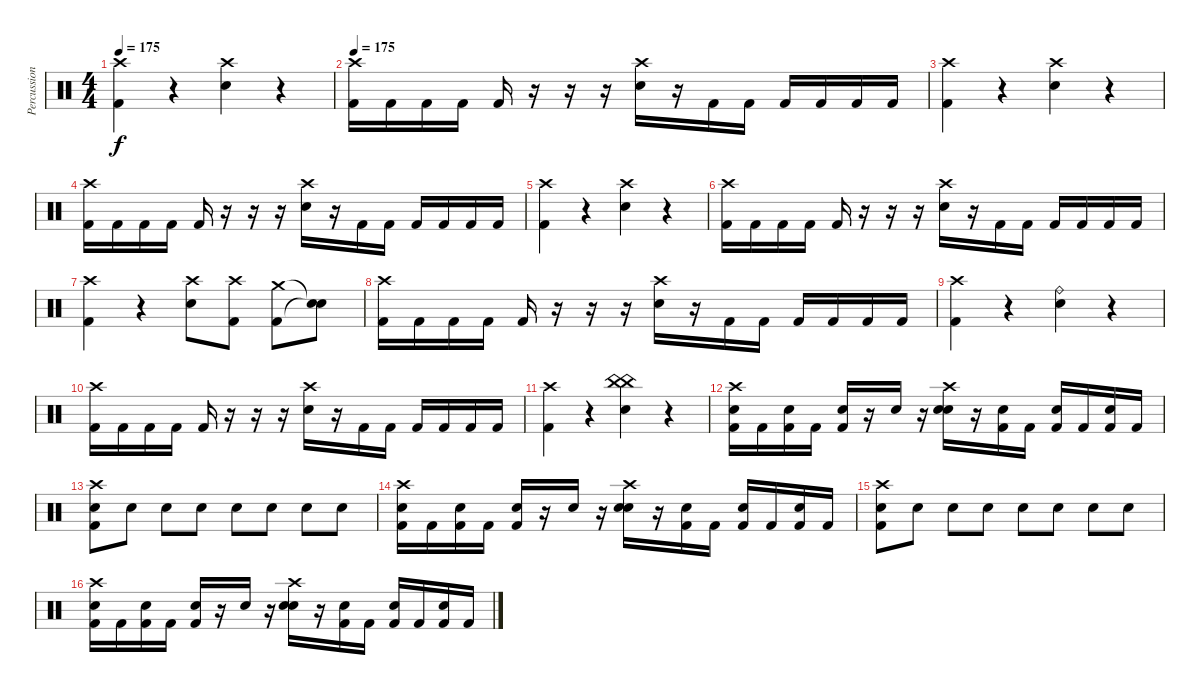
\track ("Percussion" "Percussion") {instrument percussion}
\staff {score}
\articulation defaults
\ts (4 4)
\tempo 175
\clef neutral
\ks c
("Crash high (hit)" "Kick (hit) 2").4{dy f} r.4 ("Crash high (hit)" "Electric Snare (hit)").4 r.4 |
\tempo 175
("Crash high (hit)" "Kick (hit) 2").16 "Kick (hit) 2".16 "Kick (hit) 2".16 "Kick (hit) 2".16 "Kick (hit) 2".16 r.16 r.16 r.16 ("Crash high (hit)" "Electric Snare (hit)").16 r.16 "Kick (hit) 2".16 "Kick (hit) 2".16 "Kick (hit) 2".16 "Kick (hit) 2".16 "Kick (hit) 2".16 "Kick (hit) 2".16 |
("Crash high (hit)" "Kick (hit) 2").4 r.4 ("Crash high (hit)" "Electric Snare (hit)").4 r.4 |
("Crash high (hit)" "Kick (hit) 2").16 "Kick (hit) 2".16 "Kick (hit) 2".16 "Kick (hit) 2".16 "Kick (hit) 2".16 r.16 r.16 r.16 ("Crash high (hit)" "Electric Snare (hit)").16 r.16 "Kick (hit) 2".16 "Kick (hit) 2".16 "Kick (hit) 2".16 "Kick (hit) 2".16 "Kick (hit) 2".16 "Kick (hit) 2".16 |
("Crash high (hit)" "Kick (hit) 2").4 r.4 ("Crash high (hit)" "Electric Snare (hit)").4 r.4 |
("Crash high (hit)" "Kick (hit) 2").16 "Kick (hit) 2".16 "Kick (hit) 2".16 "Kick (hit) 2".16 "Kick (hit) 2".16 r.16 r.16 r.16 ("Crash high (hit)" "Electric Snare (hit)").16 r.16 "Kick (hit) 2".16 "Kick (hit) 2".16 "Kick (hit) 2".16 "Kick (hit) 2".16 "Kick (hit) 2".16 "Kick (hit) 2".16 |
("Crash high (hit)" "Kick (hit) 2").4 r.4 ("Crash high (hit)" "Electric Snare (hit)").8 ("Crash high (hit)" "Kick (hit) 2").8 ("Crash medium (hit)" "Kick (hit) 2").8 ("Snare (hit)"{t} "Snare (hit)"{t}).8 |
("Crash high (hit)" "Kick (hit) 2").16 "Kick (hit) 2".16 "Kick (hit) 2".16 "Kick (hit) 2".16 "Kick (hit) 2".16 r.16 r.16 r.16 ("Crash high (hit)" "Electric Snare (hit)").16 r.16 "Kick (hit) 2".16 "Kick (hit) 2".16 "Kick (hit) 2".16 "Kick (hit) 2".16 "Kick (hit) 2".16 "Kick (hit) 2".16 |
("Crash high (hit)" "Kick (hit) 2").4 r.4 ("Ride (bell)" "Electric Snare (hit)").4 r.4 |
("Crash high (hit)" "Kick (hit) 2").16 "Kick (hit) 2".16 "Kick (hit) 2".16 "Kick (hit) 2".16 "Kick (hit) 2".16 r.16 r.16 r.16 ("Crash high (hit)" "Electric Snare (hit)").16 r.16 "Kick (hit) 2".16 "Kick (hit) 2".16 "Kick (hit) 2".16 "Kick (hit) 2".16 "Kick (hit) 2".16 "Kick (hit) 2".16 |
("Crash high (hit)" "Kick (hit) 2").4 r.4 ("China (hit)" "China (hit)" "Electric Snare (hit)").4 r.4 |
("Electric Snare (hit)" "Crash high (hit)" "Kick (hit) 2").16 "Kick (hit) 2".16 ("Electric Snare (hit)" "Kick (hit) 2").16 "Kick (hit) 2".16 ("Electric Snare (hit)" "Kick (hit) 2").16 r.16 "Electric Snare (hit)".16 r.16 ("Electric Snare (hit)" "Crash high (hit)" "Electric Snare (hit)").16 r.16 ("Electric Snare (hit)" "Kick (hit) 2").16 "Kick (hit) 2".16 ("Electric Snare (hit)" "Kick (hit) 2").16 "Kick (hit) 2".16 ("Electric Snare (hit)" "Kick (hit) 2").16 "Kick (hit) 2".16 |
("Electric Snare (hit)" "Crash high (hit)" "Kick (hit) 2").8 "Electric Snare (hit)".8 "Electric Snare (hit)".8 "Electric Snare (hit)".8 "Electric Snare (hit)".8 "Electric Snare (hit)".8 "Electric Snare (hit)".8 "Electric Snare (hit)".8 |
("Electric Snare (hit)" "Crash high (hit)" "Kick (hit) 2").16 "Kick (hit) 2".16 ("Electric Snare (hit)" "Kick (hit) 2").16 "Kick (hit) 2".16 ("Electric Snare (hit)" "Kick (hit) 2").16 r.16 "Electric Snare (hit)".16 r.16 ("Electric Snare (hit)" "Crash high (hit)" "Electric Snare (hit)").16 r.16 ("Electric Snare (hit)" "Kick (hit) 2").16 "Kick (hit) 2".16 ("Electric Snare (hit)" "Kick (hit) 2").16 "Kick (hit) 2".16 ("Electric Snare (hit)" "Kick (hit) 2").16 "Kick (hit) 2".16 |
("Electric Snare (hit)" "Crash high (hit)" "Kick (hit) 2").8 "Electric Snare (hit)".8 "Electric Snare (hit)".8 "Electric Snare (hit)".8 "Electric Snare (hit)".8 "Electric Snare (hit)".8 "Electric Snare (hit)".8 "Electric Snare (hit)".8 |
("Electric Snare (hit)" "Crash high (hit)" "Kick (hit) 2").16 "Kick (hit) 2".16 ("Electric Snare (hit)" "Kick (hit) 2").16 "Kick (hit) 2".16 ("Electric Snare (hit)" "Kick (hit) 2").16 r.16 "Electric Snare (hit)".16 r.16 ("Electric Snare (hit)" "Crash high (hit)" "Electric Snare (hit)").16 r.16 ("Electric Snare (hit)" "Kick (hit) 2").16 "Kick (hit) 2".16 ("Electric Snare (hit)" "Kick (hit) 2").16 "Kick (hit) 2".16 ("Electric Snare (hit)" "Kick (hit) 2").16 "Kick (hit) 2".16
